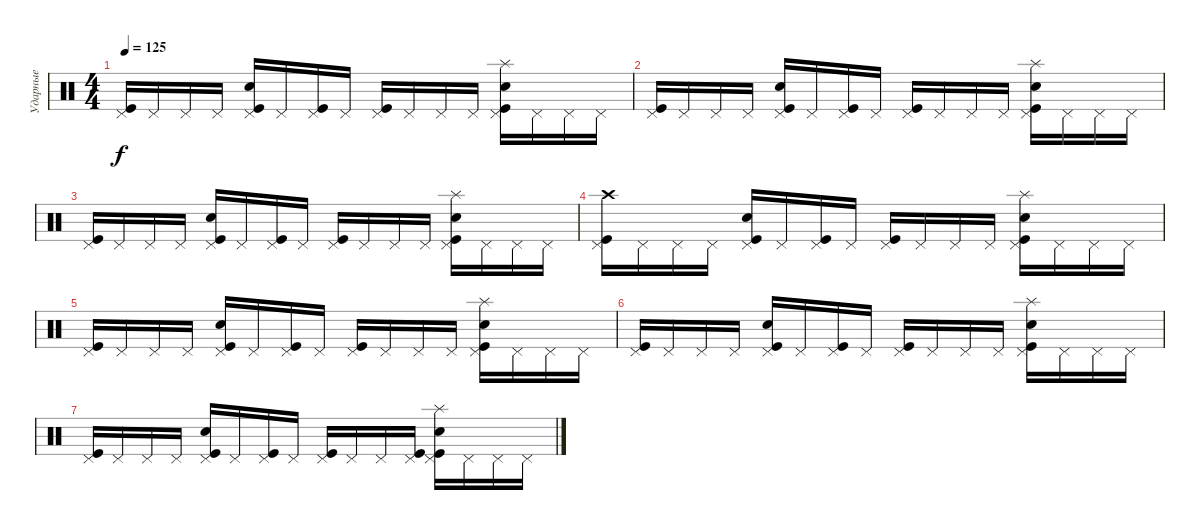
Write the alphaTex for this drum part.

\track ("Ударные" "Ударные") {instrument percussion}
\staff {score}
\articulation defaults
\ts (4 4)
\tempo 125
\clef neutral
\ks c
("Pedal Hi-Hat (hit)" "Kick (hit)").16{dy f} "Pedal Hi-Hat (hit)".16 "Pedal Hi-Hat (hit)".16 "Pedal Hi-Hat (hit)".16 ("Pedal Hi-Hat (hit)" "Kick (hit)" "Snare (hit) 2").16 "Pedal Hi-Hat (hit)".16 ("Pedal Hi-Hat (hit)" "Kick (hit)").16 "Pedal Hi-Hat (hit)".16 ("Pedal Hi-Hat (hit)" "Kick (hit)").16 "Pedal Hi-Hat (hit)".16 "Pedal Hi-Hat (hit)".16 "Pedal Hi-Hat (hit)".16 ("Pedal Hi-Hat (hit)" "Kick (hit)" "Snare (hit) 2" "Splash (hit)").16 "Pedal Hi-Hat (hit)".16 "Pedal Hi-Hat (hit)".16 "Pedal Hi-Hat (hit)".16 |
("Pedal Hi-Hat (hit)" "Kick (hit)").16 "Pedal Hi-Hat (hit)".16 "Pedal Hi-Hat (hit)".16 "Pedal Hi-Hat (hit)".16 ("Pedal Hi-Hat (hit)" "Kick (hit)" "Snare (hit) 2").16 "Pedal Hi-Hat (hit)".16 ("Pedal Hi-Hat (hit)" "Kick (hit)").16 "Pedal Hi-Hat (hit)".16 ("Pedal Hi-Hat (hit)" "Kick (hit)").16 "Pedal Hi-Hat (hit)".16 "Pedal Hi-Hat (hit)".16 "Pedal Hi-Hat (hit)".16 ("Pedal Hi-Hat (hit)" "Kick (hit)" "Snare (hit) 2" "Splash (hit)").16 "Pedal Hi-Hat (hit)".16 "Pedal Hi-Hat (hit)".16 "Pedal Hi-Hat (hit)".16 |
("Pedal Hi-Hat (hit)" "Kick (hit)").16 "Pedal Hi-Hat (hit)".16 "Pedal Hi-Hat (hit)".16 "Pedal Hi-Hat (hit)".16 ("Pedal Hi-Hat (hit)" "Kick (hit)" "Snare (hit) 2").16 "Pedal Hi-Hat (hit)".16 ("Pedal Hi-Hat (hit)" "Kick (hit)").16 "Pedal Hi-Hat (hit)".16 ("Pedal Hi-Hat (hit)" "Kick (hit)").16 "Pedal Hi-Hat (hit)".16 "Pedal Hi-Hat (hit)".16 "Pedal Hi-Hat (hit)".16 ("Pedal Hi-Hat (hit)" "Kick (hit)" "Snare (hit) 2" "Splash (hit)").16 "Pedal Hi-Hat (hit)".16 "Pedal Hi-Hat (hit)".16 "Pedal Hi-Hat (hit)".16 |
("Pedal Hi-Hat (hit)" "Kick (hit)" "Crash high (hit)").16 "Pedal Hi-Hat (hit)".16 "Pedal Hi-Hat (hit)".16 "Pedal Hi-Hat (hit)".16 ("Pedal Hi-Hat (hit)" "Kick (hit)" "Snare (hit) 2").16 "Pedal Hi-Hat (hit)".16 ("Pedal Hi-Hat (hit)" "Kick (hit)").16 "Pedal Hi-Hat (hit)".16 ("Pedal Hi-Hat (hit)" "Kick (hit)").16 "Pedal Hi-Hat (hit)".16 "Pedal Hi-Hat (hit)".16 "Pedal Hi-Hat (hit)".16 ("Pedal Hi-Hat (hit)" "Kick (hit)" "Snare (hit) 2" "Splash (hit)").16 "Pedal Hi-Hat (hit)".16 "Pedal Hi-Hat (hit)".16 "Pedal Hi-Hat (hit)".16 |
("Pedal Hi-Hat (hit)" "Kick (hit)").16 "Pedal Hi-Hat (hit)".16 "Pedal Hi-Hat (hit)".16 "Pedal Hi-Hat (hit)".16 ("Pedal Hi-Hat (hit)" "Kick (hit)" "Snare (hit) 2").16 "Pedal Hi-Hat (hit)".16 ("Pedal Hi-Hat (hit)" "Kick (hit)").16 "Pedal Hi-Hat (hit)".16 ("Pedal Hi-Hat (hit)" "Kick (hit)").16 "Pedal Hi-Hat (hit)".16 "Pedal Hi-Hat (hit)".16 "Pedal Hi-Hat (hit)".16 ("Pedal Hi-Hat (hit)" "Kick (hit)" "Snare (hit) 2" "Splash (hit)").16 "Pedal Hi-Hat (hit)".16 "Pedal Hi-Hat (hit)".16 "Pedal Hi-Hat (hit)".16 |
("Pedal Hi-Hat (hit)" "Kick (hit)").16 "Pedal Hi-Hat (hit)".16 "Pedal Hi-Hat (hit)".16 "Pedal Hi-Hat (hit)".16 ("Pedal Hi-Hat (hit)" "Kick (hit)" "Snare (hit) 2").16 "Pedal Hi-Hat (hit)".16 ("Pedal Hi-Hat (hit)" "Kick (hit)").16 "Pedal Hi-Hat (hit)".16 ("Pedal Hi-Hat (hit)" "Kick (hit)").16 "Pedal Hi-Hat (hit)".16 "Pedal Hi-Hat (hit)".16 "Pedal Hi-Hat (hit)".16 ("Pedal Hi-Hat (hit)" "Kick (hit)" "Snare (hit) 2" "Splash (hit)").16 "Pedal Hi-Hat (hit)".16 "Pedal Hi-Hat (hit)".16 "Pedal Hi-Hat (hit)".16 |
("Pedal Hi-Hat (hit)" "Kick (hit)").16 "Pedal Hi-Hat (hit)".16 "Pedal Hi-Hat (hit)".16 "Pedal Hi-Hat (hit)".16 ("Pedal Hi-Hat (hit)" "Kick (hit)" "Snare (hit) 2").16 "Pedal Hi-Hat (hit)".16 ("Pedal Hi-Hat (hit)" "Kick (hit)").16 "Pedal Hi-Hat (hit)".16 ("Pedal Hi-Hat (hit)" "Kick (hit)").16 "Pedal Hi-Hat (hit)".16 "Pedal Hi-Hat (hit)".16 ("Pedal Hi-Hat (hit)" "Kick (hit)").16 ("Pedal Hi-Hat (hit)" "Kick (hit)" "Snare (hit) 2" "Splash (hit)").16 "Pedal Hi-Hat (hit)".16 "Pedal Hi-Hat (hit)".16 "Pedal Hi-Hat (hit)".16
